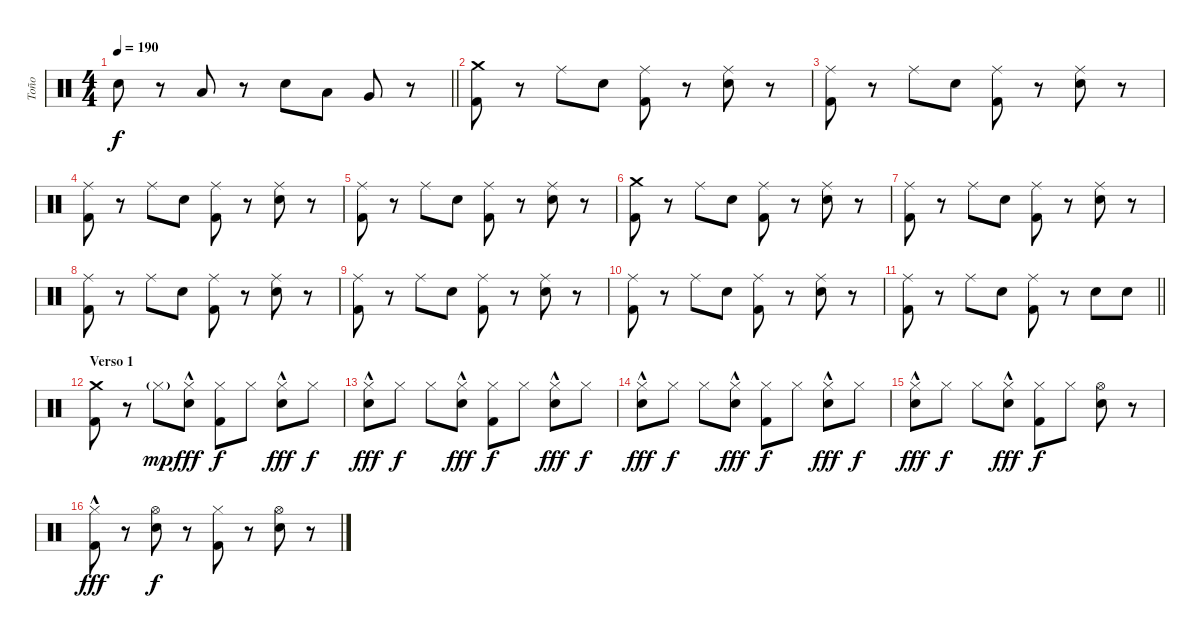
\track ("Toño" "Toño") {instrument percussion}
\staff {score}
\articulation defaults
\ts (4 4)
\tempo 190
\clef neutral
\barLineRight lightlight
\ks c "Snare (hit) 2".8{dy f}
r.8 "Low Tom (hit)".8 r.8 "Snare (hit) 2".8 "Low Tom (hit)".8 "Very Low Tom (hit)".8 r.8 |
("Crash medium (hit)" "Kick (hit) 2").8 r.8 "Ride (middle)".8 "Snare (hit) 2".8 ("Ride (middle)" "Kick (hit) 2").8 r.8 ("Ride (middle)" "Snare (hit) 2").8 r.8 |
("Ride (middle)" "Kick (hit) 2").8 r.8 "Ride (middle)".8 "Snare (hit) 2".8 ("Ride (middle)" "Kick (hit) 2").8 r.8 ("Ride (middle)" "Snare (hit) 2").8 r.8 |
("Ride (middle)" "Kick (hit) 2").8 r.8 "Ride (middle)".8 "Snare (hit) 2".8 ("Ride (middle)" "Kick (hit) 2").8 r.8 ("Ride (middle)" "Snare (hit) 2").8 r.8 |
("Ride (middle)" "Kick (hit) 2").8 r.8 "Ride (middle)".8 "Snare (hit) 2".8 ("Ride (middle)" "Kick (hit) 2").8 r.8 ("Ride (middle)" "Snare (hit) 2").8 r.8 |
("Crash medium (hit)" "Kick (hit) 2").8 r.8 "Ride (middle)".8 "Snare (hit) 2".8 ("Ride (middle)" "Kick (hit) 2").8 r.8 ("Ride (middle)" "Snare (hit) 2").8 r.8 |
("Ride (middle)" "Kick (hit) 2").8 r.8 "Ride (middle)".8 "Snare (hit) 2".8 ("Ride (middle)" "Kick (hit) 2").8 r.8 ("Ride (middle)" "Snare (hit) 2").8 r.8 |
("Ride (middle)" "Kick (hit) 2").8 r.8 "Ride (middle)".8 "Snare (hit) 2".8 ("Ride (middle)" "Kick (hit) 2").8 r.8 ("Ride (middle)" "Snare (hit) 2").8 r.8 |
("Ride (middle)" "Kick (hit) 2").8 r.8 "Ride (middle)".8 "Snare (hit) 2".8 ("Ride (middle)" "Kick (hit) 2").8 r.8 ("Ride (middle)" "Snare (hit) 2").8 r.8 |
("Ride (middle)" "Kick (hit) 2").8 r.8 "Ride (middle)".8 "Snare (hit) 2".8 ("Ride (middle)" "Kick (hit) 2").8 r.8 ("Ride (middle)" "Snare (hit) 2").8 r.8 |
\barLineRight lightlight
("Ride (middle)" "Kick (hit) 2").8 r.8 "Ride (middle)".8 "Snare (hit) 2".8 ("Ride (middle)" "Kick (hit) 2").8 r.8 "Snare (hit) 2".8 "Snare (hit) 2".8 |
\section ("" "Verso 1")
("Crash medium (hit)" "Kick (hit) 2").8 r.8 "Hi-Hat (closed)"{g}.8{dy mp} ("Hi-Hat (closed)"{hac} "Snare (hit) 2").8{dy fff} ("Hi-Hat (closed)" "Kick (hit) 2").8{dy f} "Hi-Hat (closed)".8 ("Hi-Hat (closed)"{hac} "Snare (hit) 2").8{dy fff} "Hi-Hat (closed)".8{dy f} |
("Hi-Hat (closed)"{hac} "Snare (hit) 2").8{dy fff} "Hi-Hat (closed)".8{dy f} "Hi-Hat (closed)".8 ("Hi-Hat (closed)"{hac} "Snare (hit) 2").8{dy fff} ("Hi-Hat (closed)" "Kick (hit) 2").8{dy f} "Hi-Hat (closed)".8 ("Hi-Hat (closed)"{hac} "Snare (hit) 2").8{dy fff} "Hi-Hat (closed)".8{dy f} |
("Hi-Hat (closed)"{hac} "Snare (hit) 2").8{dy fff} "Hi-Hat (closed)".8{dy f} "Hi-Hat (closed)".8 ("Hi-Hat (closed)"{hac} "Snare (hit) 2").8{dy fff} ("Hi-Hat (closed)" "Kick (hit) 2").8{dy f} "Hi-Hat (closed)".8 ("Hi-Hat (closed)"{hac} "Snare (hit) 2").8{dy fff} "Hi-Hat (closed)".8{dy f} |
("Hi-Hat (closed)"{hac} "Snare (hit) 2").8{dy fff} "Hi-Hat (closed)".8{dy f} "Hi-Hat (closed)".8 ("Hi-Hat (closed)"{hac} "Snare (hit) 2").8{dy fff} ("Hi-Hat (closed)" "Kick (hit) 2").8{dy f} "Hi-Hat (closed)".8 ("Hi-Hat (open)" "Snare (hit) 2").8 r.8 |
("Hi-Hat (closed)"{hac} "Kick (hit) 2").8{dy fff} r.8 ("Hi-Hat (open)" "Snare (hit) 2").8{dy f} r.8 ("Hi-Hat (closed)" "Kick (hit) 2").8 r.8 ("Hi-Hat (open)" "Snare (hit) 2").8 r.8
